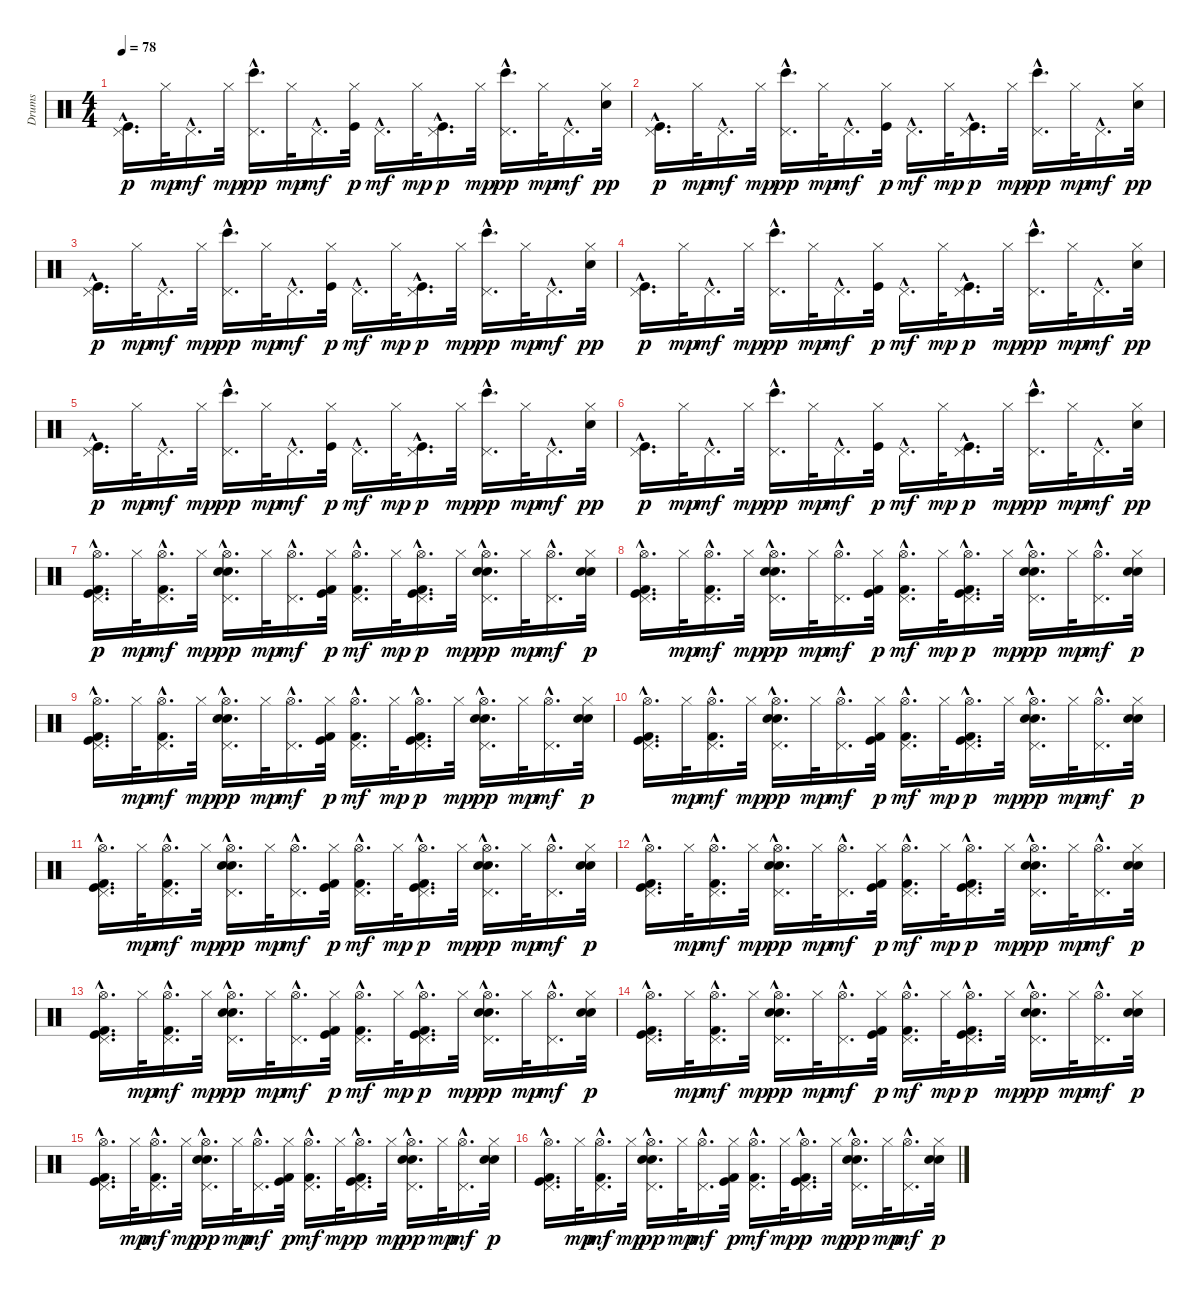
\track ("Drums" "Drums") {instrument percussion}
\staff {score}
\articulation defaults
\ts (4 4)
\tempo 78
\clef neutral
\ks c
("Pedal Hi-Hat (hit)"{hac} "Kick (hit)"{hac}).16{d dy p} "Hi-Hat (closed)".32{dy mp} "Pedal Hi-Hat (hit)"{hac}.16{d dy mf} "Hi-Hat (closed)".32{dy mp} ("Pedal Hi-Hat (hit)"{hac} "Bongo High (hit)"{hac}).16{d dy pp} "Hi-Hat (closed)".32{dy mp} "Pedal Hi-Hat (hit)"{hac}.16{d dy mf} ("Hi-Hat (closed)" "Kick (hit)").32{dy p} "Pedal Hi-Hat (hit)"{hac}.16{d dy mf} "Hi-Hat (closed)".32{dy mp} ("Pedal Hi-Hat (hit)"{hac} "Kick (hit)"{hac}).16{d dy p} "Hi-Hat (closed)".32{dy mp} ("Pedal Hi-Hat (hit)"{hac} "Bongo High (hit)"{hac}).16{d dy pp} "Hi-Hat (closed)".32{dy mp} "Pedal Hi-Hat (hit)"{hac}.16{d dy mf} ("Hi-Hat (closed)" "Snare (hit) 2").32{dy pp} |
("Pedal Hi-Hat (hit)"{hac} "Kick (hit)"{hac}).16{d dy p} "Hi-Hat (closed)".32{dy mp} "Pedal Hi-Hat (hit)"{hac}.16{d dy mf} "Hi-Hat (closed)".32{dy mp} ("Pedal Hi-Hat (hit)"{hac} "Bongo High (hit)"{hac}).16{d dy pp} "Hi-Hat (closed)".32{dy mp} "Pedal Hi-Hat (hit)"{hac}.16{d dy mf} ("Hi-Hat (closed)" "Kick (hit)").32{dy p} "Pedal Hi-Hat (hit)"{hac}.16{d dy mf} "Hi-Hat (closed)".32{dy mp} ("Pedal Hi-Hat (hit)"{hac} "Kick (hit)"{hac}).16{d dy p} "Hi-Hat (closed)".32{dy mp} ("Pedal Hi-Hat (hit)"{hac} "Bongo High (hit)"{hac}).16{d dy pp} "Hi-Hat (closed)".32{dy mp} "Pedal Hi-Hat (hit)"{hac}.16{d dy mf} ("Hi-Hat (closed)" "Snare (hit) 2").32{dy pp} |
("Pedal Hi-Hat (hit)"{hac} "Kick (hit)"{hac}).16{d dy p} "Hi-Hat (closed)".32{dy mp} "Pedal Hi-Hat (hit)"{hac}.16{d dy mf} "Hi-Hat (closed)".32{dy mp} ("Pedal Hi-Hat (hit)"{hac} "Bongo High (hit)"{hac}).16{d dy pp} "Hi-Hat (closed)".32{dy mp} "Pedal Hi-Hat (hit)"{hac}.16{d dy mf} ("Hi-Hat (closed)" "Kick (hit)").32{dy p} "Pedal Hi-Hat (hit)"{hac}.16{d dy mf} "Hi-Hat (closed)".32{dy mp} ("Pedal Hi-Hat (hit)"{hac} "Kick (hit)"{hac}).16{d dy p} "Hi-Hat (closed)".32{dy mp} ("Pedal Hi-Hat (hit)"{hac} "Bongo High (hit)"{hac}).16{d dy pp} "Hi-Hat (closed)".32{dy mp} "Pedal Hi-Hat (hit)"{hac}.16{d dy mf} ("Hi-Hat (closed)" "Snare (hit) 2").32{dy pp} |
("Pedal Hi-Hat (hit)"{hac} "Kick (hit)"{hac}).16{d dy p} "Hi-Hat (closed)".32{dy mp} "Pedal Hi-Hat (hit)"{hac}.16{d dy mf} "Hi-Hat (closed)".32{dy mp} ("Pedal Hi-Hat (hit)"{hac} "Bongo High (hit)"{hac}).16{d dy pp} "Hi-Hat (closed)".32{dy mp} "Pedal Hi-Hat (hit)"{hac}.16{d dy mf} ("Hi-Hat (closed)" "Kick (hit)").32{dy p} "Pedal Hi-Hat (hit)"{hac}.16{d dy mf} "Hi-Hat (closed)".32{dy mp} ("Pedal Hi-Hat (hit)"{hac} "Kick (hit)"{hac}).16{d dy p} "Hi-Hat (closed)".32{dy mp} ("Pedal Hi-Hat (hit)"{hac} "Bongo High (hit)"{hac}).16{d dy pp} "Hi-Hat (closed)".32{dy mp} "Pedal Hi-Hat (hit)"{hac}.16{d dy mf} ("Hi-Hat (closed)" "Snare (hit) 2").32{dy pp} |
("Pedal Hi-Hat (hit)"{hac} "Kick (hit)"{hac}).16{d dy p} "Hi-Hat (closed)".32{dy mp} "Pedal Hi-Hat (hit)"{hac}.16{d dy mf} "Hi-Hat (closed)".32{dy mp} ("Pedal Hi-Hat (hit)"{hac} "Bongo High (hit)"{hac}).16{d dy pp} "Hi-Hat (closed)".32{dy mp} "Pedal Hi-Hat (hit)"{hac}.16{d dy mf} ("Hi-Hat (closed)" "Kick (hit)").32{dy p} "Pedal Hi-Hat (hit)"{hac}.16{d dy mf} "Hi-Hat (closed)".32{dy mp} ("Pedal Hi-Hat (hit)"{hac} "Kick (hit)"{hac}).16{d dy p} "Hi-Hat (closed)".32{dy mp} ("Pedal Hi-Hat (hit)"{hac} "Bongo High (hit)"{hac}).16{d dy pp} "Hi-Hat (closed)".32{dy mp} "Pedal Hi-Hat (hit)"{hac}.16{d dy mf} ("Hi-Hat (closed)" "Snare (hit) 2").32{dy pp} |
("Pedal Hi-Hat (hit)"{hac} "Kick (hit)"{hac}).16{d dy p} "Hi-Hat (closed)".32{dy mp} "Pedal Hi-Hat (hit)"{hac}.16{d dy mf} "Hi-Hat (closed)".32{dy mp} ("Pedal Hi-Hat (hit)"{hac} "Bongo High (hit)"{hac}).16{d dy pp} "Hi-Hat (closed)".32{dy mp} "Pedal Hi-Hat (hit)"{hac}.16{d dy mf} ("Hi-Hat (closed)" "Kick (hit)").32{dy p} "Pedal Hi-Hat (hit)"{hac}.16{d dy mf} "Hi-Hat (closed)".32{dy mp} ("Pedal Hi-Hat (hit)"{hac} "Kick (hit)"{hac}).16{d dy p} "Hi-Hat (closed)".32{dy mp} ("Pedal Hi-Hat (hit)"{hac} "Bongo High (hit)"{hac}).16{d dy pp} "Hi-Hat (closed)".32{dy mp} "Pedal Hi-Hat (hit)"{hac}.16{d dy mf} ("Hi-Hat (closed)" "Snare (hit) 2").32{dy pp} |
("Pedal Hi-Hat (hit)"{hac} "Kick (hit)"{hac} "Hi-Hat (open)"{hac} "Kick (hit) 2"{hac}).16{d dy p} "Hi-Hat (closed)".32{dy mp} ("Pedal Hi-Hat (hit)"{hac} "Hi-Hat (open)"{hac} "Kick (hit) 2"{hac}).16{d dy mf} "Hi-Hat (closed)".32{dy mp} ("Pedal Hi-Hat (hit)"{hac} "Snare (hit) 2"{hac} "Hi-Hat (open)"{hac} "Electric Snare (hit)"{hac}).16{d dy pp} "Hi-Hat (closed)".32{dy mp} ("Pedal Hi-Hat (hit)"{hac} "Hi-Hat (open)"{hac}).16{d dy mf} ("Hi-Hat (closed)" "Kick (hit)" "Kick (hit) 2").32{dy p} ("Pedal Hi-Hat (hit)"{hac} "Hi-Hat (open)"{hac} "Kick (hit) 2"{hac}).16{d dy mf} "Hi-Hat (closed)".32{dy mp} ("Pedal Hi-Hat (hit)"{hac} "Kick (hit)"{hac} "Hi-Hat (open)"{hac} "Kick (hit) 2"{hac}).16{d dy p} "Hi-Hat (closed)".32{dy mp} ("Pedal Hi-Hat (hit)"{hac} "Snare (hit) 2"{hac} "Hi-Hat (open)"{hac} "Electric Snare (hit)"{hac}).16{d dy pp} "Hi-Hat (closed)".32{dy mp} ("Pedal Hi-Hat (hit)"{hac} "Hi-Hat (open)"{hac}).16{d dy mf} ("Hi-Hat (closed)" "Snare (hit) 2" "Electric Snare (hit)").32{dy p} |
("Pedal Hi-Hat (hit)"{hac} "Kick (hit)"{hac} "Hi-Hat (open)"{hac} "Kick (hit) 2"{hac}).16{d} "Hi-Hat (closed)".32{dy mp} ("Pedal Hi-Hat (hit)"{hac} "Hi-Hat (open)"{hac} "Kick (hit) 2"{hac}).16{d dy mf} "Hi-Hat (closed)".32{dy mp} ("Pedal Hi-Hat (hit)"{hac} "Snare (hit) 2"{hac} "Hi-Hat (open)"{hac} "Electric Snare (hit)"{hac}).16{d dy pp} "Hi-Hat (closed)".32{dy mp} ("Pedal Hi-Hat (hit)"{hac} "Hi-Hat (open)"{hac}).16{d dy mf} ("Hi-Hat (closed)" "Kick (hit)" "Kick (hit) 2").32{dy p} ("Pedal Hi-Hat (hit)"{hac} "Hi-Hat (open)"{hac} "Kick (hit) 2"{hac}).16{d dy mf} "Hi-Hat (closed)".32{dy mp} ("Pedal Hi-Hat (hit)"{hac} "Kick (hit)"{hac} "Hi-Hat (open)"{hac} "Kick (hit) 2"{hac}).16{d dy p} "Hi-Hat (closed)".32{dy mp} ("Pedal Hi-Hat (hit)"{hac} "Snare (hit) 2"{hac} "Hi-Hat (open)"{hac} "Electric Snare (hit)"{hac}).16{d dy pp} "Hi-Hat (closed)".32{dy mp} ("Pedal Hi-Hat (hit)"{hac} "Hi-Hat (open)"{hac}).16{d dy mf} ("Hi-Hat (closed)" "Snare (hit) 2" "Electric Snare (hit)").32{dy p} |
("Pedal Hi-Hat (hit)"{hac} "Kick (hit)"{hac} "Hi-Hat (open)"{hac} "Kick (hit) 2"{hac}).16{d} "Hi-Hat (closed)".32{dy mp} ("Pedal Hi-Hat (hit)"{hac} "Hi-Hat (open)"{hac} "Kick (hit) 2"{hac}).16{d dy mf} "Hi-Hat (closed)".32{dy mp} ("Pedal Hi-Hat (hit)"{hac} "Snare (hit) 2"{hac} "Hi-Hat (open)"{hac} "Electric Snare (hit)"{hac}).16{d dy pp} "Hi-Hat (closed)".32{dy mp} ("Pedal Hi-Hat (hit)"{hac} "Hi-Hat (open)"{hac}).16{d dy mf} ("Hi-Hat (closed)" "Kick (hit)" "Kick (hit) 2").32{dy p} ("Pedal Hi-Hat (hit)"{hac} "Hi-Hat (open)"{hac} "Kick (hit) 2"{hac}).16{d dy mf} "Hi-Hat (closed)".32{dy mp} ("Pedal Hi-Hat (hit)"{hac} "Kick (hit)"{hac} "Hi-Hat (open)"{hac} "Kick (hit) 2"{hac}).16{d dy p} "Hi-Hat (closed)".32{dy mp} ("Pedal Hi-Hat (hit)"{hac} "Snare (hit) 2"{hac} "Hi-Hat (open)"{hac} "Electric Snare (hit)"{hac}).16{d dy pp} "Hi-Hat (closed)".32{dy mp} ("Pedal Hi-Hat (hit)"{hac} "Hi-Hat (open)"{hac}).16{d dy mf} ("Hi-Hat (closed)" "Snare (hit) 2" "Electric Snare (hit)").32{dy p} |
("Pedal Hi-Hat (hit)"{hac} "Kick (hit)"{hac} "Hi-Hat (open)"{hac} "Kick (hit) 2"{hac}).16{d} "Hi-Hat (closed)".32{dy mp} ("Pedal Hi-Hat (hit)"{hac} "Hi-Hat (open)"{hac} "Kick (hit) 2"{hac}).16{d dy mf} "Hi-Hat (closed)".32{dy mp} ("Pedal Hi-Hat (hit)"{hac} "Snare (hit) 2"{hac} "Hi-Hat (open)"{hac} "Electric Snare (hit)"{hac}).16{d dy pp} "Hi-Hat (closed)".32{dy mp} ("Pedal Hi-Hat (hit)"{hac} "Hi-Hat (open)"{hac}).16{d dy mf} ("Hi-Hat (closed)" "Kick (hit)" "Kick (hit) 2").32{dy p} ("Pedal Hi-Hat (hit)"{hac} "Hi-Hat (open)"{hac} "Kick (hit) 2"{hac}).16{d dy mf} "Hi-Hat (closed)".32{dy mp} ("Pedal Hi-Hat (hit)"{hac} "Kick (hit)"{hac} "Hi-Hat (open)"{hac} "Kick (hit) 2"{hac}).16{d dy p} "Hi-Hat (closed)".32{dy mp} ("Pedal Hi-Hat (hit)"{hac} "Snare (hit) 2"{hac} "Hi-Hat (open)"{hac} "Electric Snare (hit)"{hac}).16{d dy pp} "Hi-Hat (closed)".32{dy mp} ("Pedal Hi-Hat (hit)"{hac} "Hi-Hat (open)"{hac}).16{d dy mf} ("Hi-Hat (closed)" "Snare (hit) 2" "Electric Snare (hit)").32{dy p} |
("Pedal Hi-Hat (hit)"{hac} "Kick (hit)"{hac} "Hi-Hat (open)"{hac} "Kick (hit) 2"{hac}).16{d} "Hi-Hat (closed)".32{dy mp} ("Pedal Hi-Hat (hit)"{hac} "Hi-Hat (open)"{hac} "Kick (hit) 2"{hac}).16{d dy mf} "Hi-Hat (closed)".32{dy mp} ("Pedal Hi-Hat (hit)"{hac} "Snare (hit) 2"{hac} "Hi-Hat (open)"{hac} "Electric Snare (hit)"{hac}).16{d dy pp} "Hi-Hat (closed)".32{dy mp} ("Pedal Hi-Hat (hit)"{hac} "Hi-Hat (open)"{hac}).16{d dy mf} ("Hi-Hat (closed)" "Kick (hit)" "Kick (hit) 2").32{dy p} ("Pedal Hi-Hat (hit)"{hac} "Hi-Hat (open)"{hac} "Kick (hit) 2"{hac}).16{d dy mf} "Hi-Hat (closed)".32{dy mp} ("Pedal Hi-Hat (hit)"{hac} "Kick (hit)"{hac} "Hi-Hat (open)"{hac} "Kick (hit) 2"{hac}).16{d dy p} "Hi-Hat (closed)".32{dy mp} ("Pedal Hi-Hat (hit)"{hac} "Snare (hit) 2"{hac} "Hi-Hat (open)"{hac} "Electric Snare (hit)"{hac}).16{d dy pp} "Hi-Hat (closed)".32{dy mp} ("Pedal Hi-Hat (hit)"{hac} "Hi-Hat (open)"{hac}).16{d dy mf} ("Hi-Hat (closed)" "Snare (hit) 2" "Electric Snare (hit)").32{dy p} |
("Pedal Hi-Hat (hit)"{hac} "Kick (hit)"{hac} "Hi-Hat (open)"{hac} "Kick (hit) 2"{hac}).16{d} "Hi-Hat (closed)".32{dy mp} ("Pedal Hi-Hat (hit)"{hac} "Hi-Hat (open)"{hac} "Kick (hit) 2"{hac}).16{d dy mf} "Hi-Hat (closed)".32{dy mp} ("Pedal Hi-Hat (hit)"{hac} "Snare (hit) 2"{hac} "Hi-Hat (open)"{hac} "Electric Snare (hit)"{hac}).16{d dy pp} "Hi-Hat (closed)".32{dy mp} ("Pedal Hi-Hat (hit)"{hac} "Hi-Hat (open)"{hac}).16{d dy mf} ("Hi-Hat (closed)" "Kick (hit)" "Kick (hit) 2").32{dy p} ("Pedal Hi-Hat (hit)"{hac} "Hi-Hat (open)"{hac} "Kick (hit) 2"{hac}).16{d dy mf} "Hi-Hat (closed)".32{dy mp} ("Pedal Hi-Hat (hit)"{hac} "Kick (hit)"{hac} "Hi-Hat (open)"{hac} "Kick (hit) 2"{hac}).16{d dy p} "Hi-Hat (closed)".32{dy mp} ("Pedal Hi-Hat (hit)"{hac} "Snare (hit) 2"{hac} "Hi-Hat (open)"{hac} "Electric Snare (hit)"{hac}).16{d dy pp} "Hi-Hat (closed)".32{dy mp} ("Pedal Hi-Hat (hit)"{hac} "Hi-Hat (open)"{hac}).16{d dy mf} ("Hi-Hat (closed)" "Snare (hit) 2" "Electric Snare (hit)").32{dy p} |
("Pedal Hi-Hat (hit)"{hac} "Kick (hit)"{hac} "Hi-Hat (open)"{hac} "Kick (hit) 2"{hac}).16{d} "Hi-Hat (closed)".32{dy mp} ("Pedal Hi-Hat (hit)"{hac} "Hi-Hat (open)"{hac} "Kick (hit) 2"{hac}).16{d dy mf} "Hi-Hat (closed)".32{dy mp} ("Pedal Hi-Hat (hit)"{hac} "Snare (hit) 2"{hac} "Hi-Hat (open)"{hac} "Electric Snare (hit)"{hac}).16{d dy pp} "Hi-Hat (closed)".32{dy mp} ("Pedal Hi-Hat (hit)"{hac} "Hi-Hat (open)"{hac}).16{d dy mf} ("Hi-Hat (closed)" "Kick (hit)" "Kick (hit) 2").32{dy p} ("Pedal Hi-Hat (hit)"{hac} "Hi-Hat (open)"{hac} "Kick (hit) 2"{hac}).16{d dy mf} "Hi-Hat (closed)".32{dy mp} ("Pedal Hi-Hat (hit)"{hac} "Kick (hit)"{hac} "Hi-Hat (open)"{hac} "Kick (hit) 2"{hac}).16{d dy p} "Hi-Hat (closed)".32{dy mp} ("Pedal Hi-Hat (hit)"{hac} "Snare (hit) 2"{hac} "Hi-Hat (open)"{hac} "Electric Snare (hit)"{hac}).16{d dy pp} "Hi-Hat (closed)".32{dy mp} ("Pedal Hi-Hat (hit)"{hac} "Hi-Hat (open)"{hac}).16{d dy mf} ("Hi-Hat (closed)" "Snare (hit) 2" "Electric Snare (hit)").32{dy p} |
("Pedal Hi-Hat (hit)"{hac} "Kick (hit)"{hac} "Hi-Hat (open)"{hac} "Kick (hit) 2"{hac}).16{d} "Hi-Hat (closed)".32{dy mp} ("Pedal Hi-Hat (hit)"{hac} "Hi-Hat (open)"{hac} "Kick (hit) 2"{hac}).16{d dy mf} "Hi-Hat (closed)".32{dy mp} ("Pedal Hi-Hat (hit)"{hac} "Snare (hit) 2"{hac} "Hi-Hat (open)"{hac} "Electric Snare (hit)"{hac}).16{d dy pp} "Hi-Hat (closed)".32{dy mp} ("Pedal Hi-Hat (hit)"{hac} "Hi-Hat (open)"{hac}).16{d dy mf} ("Hi-Hat (closed)" "Kick (hit)" "Kick (hit) 2").32{dy p} ("Pedal Hi-Hat (hit)"{hac} "Hi-Hat (open)"{hac} "Kick (hit) 2"{hac}).16{d dy mf} "Hi-Hat (closed)".32{dy mp} ("Pedal Hi-Hat (hit)"{hac} "Kick (hit)"{hac} "Hi-Hat (open)"{hac} "Kick (hit) 2"{hac}).16{d dy p} "Hi-Hat (closed)".32{dy mp} ("Pedal Hi-Hat (hit)"{hac} "Snare (hit) 2"{hac} "Hi-Hat (open)"{hac} "Electric Snare (hit)"{hac}).16{d dy pp} "Hi-Hat (closed)".32{dy mp} ("Pedal Hi-Hat (hit)"{hac} "Hi-Hat (open)"{hac}).16{d dy mf} ("Hi-Hat (closed)" "Snare (hit) 2" "Electric Snare (hit)").32{dy p} |
("Pedal Hi-Hat (hit)"{hac} "Kick (hit)"{hac} "Hi-Hat (open)"{hac} "Kick (hit) 2"{hac}).16{d} "Hi-Hat (closed)".32{dy mp} ("Pedal Hi-Hat (hit)"{hac} "Hi-Hat (open)"{hac} "Kick (hit) 2"{hac}).16{d dy mf} "Hi-Hat (closed)".32{dy mp} ("Pedal Hi-Hat (hit)"{hac} "Snare (hit) 2"{hac} "Hi-Hat (open)"{hac} "Electric Snare (hit)"{hac}).16{d dy pp} "Hi-Hat (closed)".32{dy mp} ("Pedal Hi-Hat (hit)"{hac} "Hi-Hat (open)"{hac}).16{d dy mf} ("Hi-Hat (closed)" "Kick (hit)" "Kick (hit) 2").32{dy p} ("Pedal Hi-Hat (hit)"{hac} "Hi-Hat (open)"{hac} "Kick (hit) 2"{hac}).16{d dy mf} "Hi-Hat (closed)".32{dy mp} ("Pedal Hi-Hat (hit)"{hac} "Kick (hit)"{hac} "Hi-Hat (open)"{hac} "Kick (hit) 2"{hac}).16{d dy p} "Hi-Hat (closed)".32{dy mp} ("Pedal Hi-Hat (hit)"{hac} "Snare (hit) 2"{hac} "Hi-Hat (open)"{hac} "Electric Snare (hit)"{hac}).16{d dy pp} "Hi-Hat (closed)".32{dy mp} ("Pedal Hi-Hat (hit)"{hac} "Hi-Hat (open)"{hac}).16{d dy mf} ("Hi-Hat (closed)" "Snare (hit) 2" "Electric Snare (hit)").32{dy p} |
("Pedal Hi-Hat (hit)"{hac} "Kick (hit)"{hac} "Hi-Hat (open)"{hac} "Kick (hit) 2"{hac}).16{d} "Hi-Hat (closed)".32{dy mp} ("Pedal Hi-Hat (hit)"{hac} "Hi-Hat (open)"{hac} "Kick (hit) 2"{hac}).16{d dy mf} "Hi-Hat (closed)".32{dy mp} ("Pedal Hi-Hat (hit)"{hac} "Snare (hit) 2"{hac} "Hi-Hat (open)"{hac} "Electric Snare (hit)"{hac}).16{d dy pp} "Hi-Hat (closed)".32{dy mp} ("Pedal Hi-Hat (hit)"{hac} "Hi-Hat (open)"{hac}).16{d dy mf} ("Hi-Hat (closed)" "Kick (hit)" "Kick (hit) 2").32{dy p} ("Pedal Hi-Hat (hit)"{hac} "Hi-Hat (open)"{hac} "Kick (hit) 2"{hac}).16{d dy mf} "Hi-Hat (closed)".32{dy mp} ("Pedal Hi-Hat (hit)"{hac} "Kick (hit)"{hac} "Hi-Hat (open)"{hac} "Kick (hit) 2"{hac}).16{d dy p} "Hi-Hat (closed)".32{dy mp} ("Pedal Hi-Hat (hit)"{hac} "Snare (hit) 2"{hac} "Hi-Hat (open)"{hac} "Electric Snare (hit)"{hac}).16{d dy pp} "Hi-Hat (closed)".32{dy mp} ("Pedal Hi-Hat (hit)"{hac} "Hi-Hat (open)"{hac}).16{d dy mf} ("Hi-Hat (closed)" "Snare (hit) 2" "Electric Snare (hit)").32{dy p}
